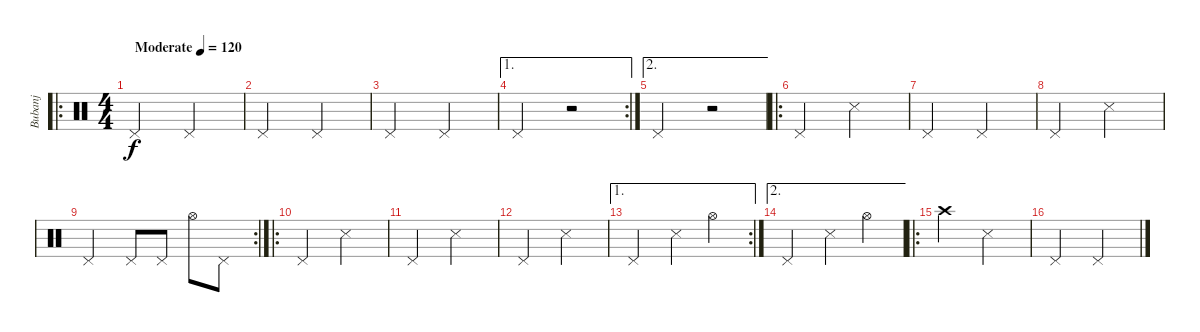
\track ("Bubanj" "Bubanj") {instrument percussion}
\staff {score}
\articulation defaults
\ro
\ts (4 4)
\tempo (120 "Moderate")
\clef neutral
\ks c "Pedal Hi-Hat (hit)".2{dy f} "Pedal Hi-Hat (hit)".2
|
"Pedal Hi-Hat (hit)".2 "Pedal Hi-Hat (hit)".2 |
"Pedal Hi-Hat (hit)".2 "Pedal Hi-Hat (hit)".2 |
\ae 1
\rc 2 "Pedal Hi-Hat (hit)".2
r.2 |
\ae 2 "Pedal Hi-Hat (hit)".2
r.2 |
\ro "Pedal Hi-Hat (hit)".2 "Snare (side stick) 3".2
|
"Pedal Hi-Hat (hit)".2 "Pedal Hi-Hat (hit)".2 |
"Pedal Hi-Hat (hit)".2 "Snare (side stick) 3".2 |
\rc 2 "Pedal Hi-Hat (hit)".2 "Pedal Hi-Hat (hit)".8 "Pedal Hi-Hat (hit)".8 "Hi-Hat (open)".8 "Pedal Hi-Hat (hit)".8
|
\ro "Pedal Hi-Hat (hit)".2 "Snare (side stick) 3".2
|
"Pedal Hi-Hat (hit)".2 "Snare (side stick) 3".2 |
"Pedal Hi-Hat (hit)".2 "Snare (side stick) 3".2 |
\ae 1
\rc 2 "Pedal Hi-Hat (hit)".2 "Snare (side stick) 3".4 "Hi-Hat (open)".4
|
\ae 2 "Pedal Hi-Hat (hit)".2 "Snare (side stick) 3".4 "Hi-Hat (open)".4
|
\ro "Crash high (hit)".2 "Snare (side stick) 3".2
|
"Pedal Hi-Hat (hit)".2 "Pedal Hi-Hat (hit)".2
